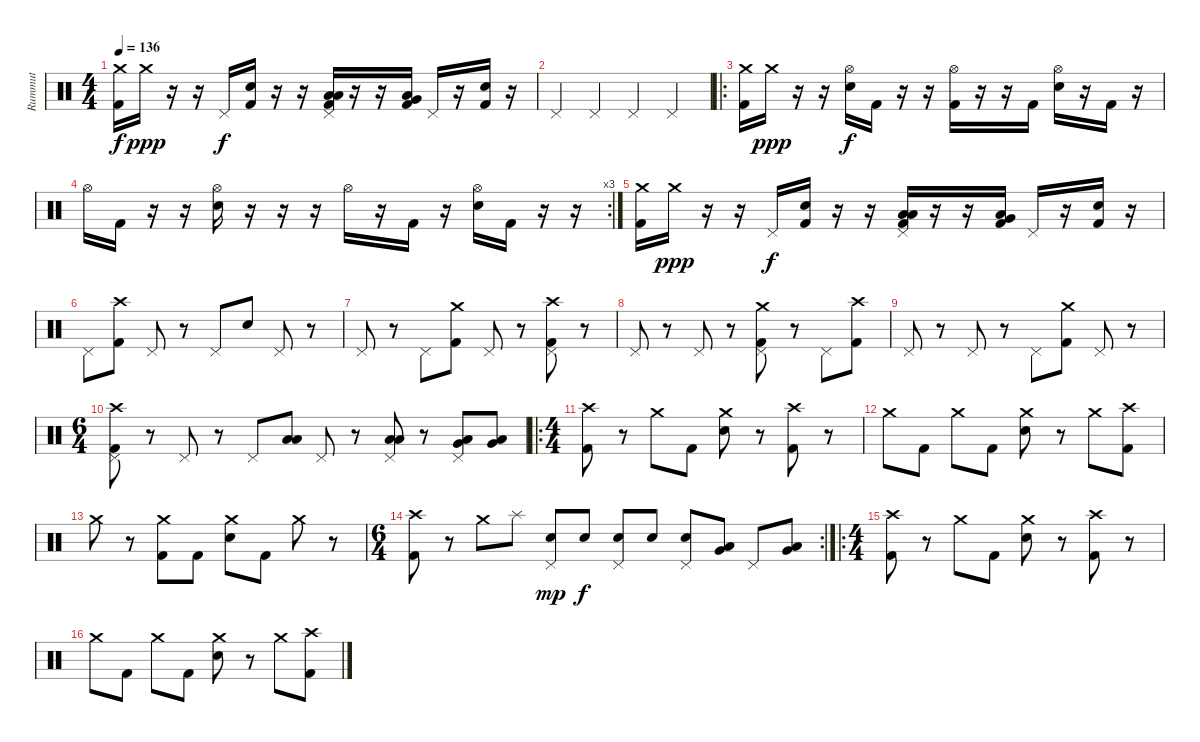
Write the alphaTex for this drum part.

\track ("Rummut" "Rummut") {instrument percussion}
\staff {score}
\articulation defaults
\ts (4 4)
\tempo 136
\clef neutral
\ks c
("Crash medium (hit)" "Kick (hit) 2").16{dy f} "Crash medium (hit)".16{dy ppp} r.16 r.16 "Pedal Hi-Hat (hit)".16{dy f} ("Electric Snare (hit)" "Kick (hit) 2").16 r.16 r.16 ("Pedal Hi-Hat (hit)" "Low Tom (hit)" "Low Floor Tom (hit)" "Kick (hit) 2").16 r.16 r.16 ("Very Low Tom (hit)" "Low Floor Tom (hit)" "Kick (hit) 2").16 "Pedal Hi-Hat (hit)".16 r.16 ("Electric Snare (hit)" "Kick (hit) 2").16 r.16 |
"Pedal Hi-Hat (hit)".4 "Pedal Hi-Hat (hit)".4 "Pedal Hi-Hat (hit)".4 "Pedal Hi-Hat (hit)".4 |
\ro
("Crash medium (hit)" "Kick (hit) 2").16 "Crash medium (hit)".16{dy ppp} r.16 r.16 ("Hi-Hat (open)" "Electric Snare (hit)").16{dy f} "Kick (hit) 2".16 r.16 r.16 ("Hi-Hat (open)" "Kick (hit) 2").16 r.16 r.16 "Kick (hit) 2".16 ("Hi-Hat (open)" "Electric Snare (hit)").16 r.16 "Kick (hit) 2".16 r.16 |
\rc 3 "Hi-Hat (open)".16 "Kick (hit) 2".16
r.16 r.16 ("Hi-Hat (open)" "Electric Snare (hit)").16 r.16 r.16 r.16 "Hi-Hat (open)".16 r.16 "Kick (hit) 2".16 r.16 ("Hi-Hat (open)" "Electric Snare (hit)").16 "Kick (hit) 2".16 r.16 r.16 |
("Crash medium (hit)" "Kick (hit) 2").16 "Crash medium (hit)".16{dy ppp} r.16 r.16 "Pedal Hi-Hat (hit)".16{dy f} ("Electric Snare (hit)" "Kick (hit) 2").16 r.16 r.16 ("Pedal Hi-Hat (hit)" "Low Tom (hit)" "Low Floor Tom (hit)" "Kick (hit) 2").16 r.16 r.16 ("Very Low Tom (hit)" "Low Floor Tom (hit)" "Kick (hit) 2").16 "Pedal Hi-Hat (hit)".16 r.16 ("Electric Snare (hit)" "Kick (hit) 2").16 r.16 |
"Pedal Hi-Hat (hit)".8 ("Crash high (hit)" "Kick (hit) 2").8 "Pedal Hi-Hat (hit)".8 r.8 "Pedal Hi-Hat (hit)".8 "Electric Snare (hit)".8 "Pedal Hi-Hat (hit)".8 r.8 |
"Pedal Hi-Hat (hit)".8 r.8 "Pedal Hi-Hat (hit)".8 ("Crash medium (hit)" "Kick (hit) 2").8 "Pedal Hi-Hat (hit)".8 r.8 ("Crash high (hit)" "Pedal Hi-Hat (hit)" "Kick (hit) 2").8 r.8 |
"Pedal Hi-Hat (hit)".8 r.8 "Pedal Hi-Hat (hit)".8 r.8 ("Crash medium (hit)" "Pedal Hi-Hat (hit)" "Kick (hit) 2").8 r.8 "Pedal Hi-Hat (hit)".8 ("Crash high (hit)" "Kick (hit) 2").8 |
"Pedal Hi-Hat (hit)".8 r.8 "Pedal Hi-Hat (hit)".8 r.8 "Pedal Hi-Hat (hit)".8 ("Crash medium (hit)" "Kick (hit) 2").8 "Pedal Hi-Hat (hit)".8 r.8 |
\ts (6 4)
("Crash high (hit)" "Pedal Hi-Hat (hit)" "Kick (hit) 2").8 r.8 "Pedal Hi-Hat (hit)".8 r.8 "Pedal Hi-Hat (hit)".8 ("Low Tom (hit)" "Low Floor Tom (hit)").8 "Pedal Hi-Hat (hit)".8 r.8 ("Pedal Hi-Hat (hit)" "Low Tom (hit)" "Low Floor Tom (hit)").8 r.8 ("Pedal Hi-Hat (hit)" "Very Low Tom (hit)" "Low Floor Tom (hit)").8 ("Very Low Tom (hit)" "Low Floor Tom (hit)").8 |
\ro
\ts (4 4)
("Crash high (hit)" "Kick (hit) 2").8 r.8 "Crash medium (hit)".8 "Kick (hit) 2".8 ("Crash medium (hit)" "Electric Snare (hit)").8 r.8 ("Crash high (hit)" "Kick (hit) 2").8 r.8 |
"Crash medium (hit)".8 "Kick (hit) 2".8 "Crash medium (hit)".8 "Kick (hit) 2".8 ("Crash medium (hit)" "Electric Snare (hit)").8 r.8 "Crash medium (hit)".8 ("Crash high (hit)" "Kick (hit) 2").8 |
"Crash medium (hit)".8 r.8 ("Crash medium (hit)" "Kick (hit) 2").8 "Kick (hit) 2".8 ("Crash medium (hit)" "Electric Snare (hit)").8 "Kick (hit) 2".8 "Crash medium (hit)".8 r.8 |
\rc 2
\ts (6 4)
("Crash high (hit)" "Kick (hit) 2").8 r.8 "Crash medium (hit)".8 "Splash (hit)".8 ("Pedal Hi-Hat (hit)" "Electric Snare (hit)").8{dy mp} "Electric Snare (hit)".8{dy f} ("Pedal Hi-Hat (hit)" "Electric Snare (hit)").8 "Electric Snare (hit)".8 ("Pedal Hi-Hat (hit)" "Electric Snare (hit)").8 ("Very Low Tom (hit)" "Low Floor Tom (hit)").8 "Pedal Hi-Hat (hit)".8 ("Very Low Tom (hit)" "Low Floor Tom (hit)").8 |
\ro
\ts (4 4)
("Crash high (hit)" "Kick (hit) 2").8 r.8 "Crash medium (hit)".8 "Kick (hit) 2".8 ("Crash medium (hit)" "Electric Snare (hit)").8 r.8 ("Crash high (hit)" "Kick (hit) 2").8 r.8 |
"Crash medium (hit)".8 "Kick (hit) 2".8 "Crash medium (hit)".8 "Kick (hit) 2".8 ("Crash medium (hit)" "Electric Snare (hit)").8 r.8 "Crash medium (hit)".8 ("Crash high (hit)" "Kick (hit) 2").8
